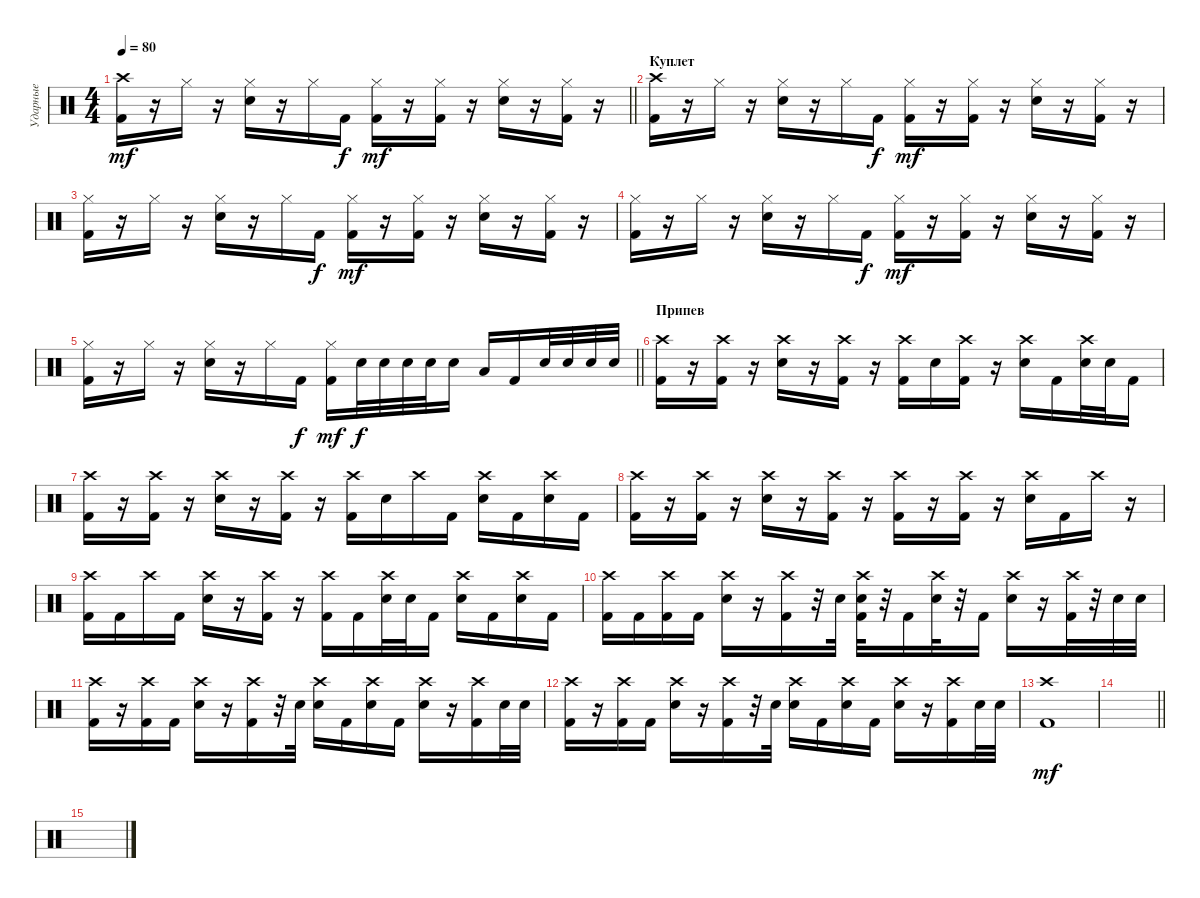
\track ("Ударные" "Ударные") {instrument percussion}
\staff {score}
\articulation defaults
\ts (4 4)
\tempo 80
\clef neutral
\barLineRight lightlight
\ks c
("Crash high (hit)" "Kick (hit) 2").16{dy mf} r.16 "Hi-Hat (closed)".16 r.16 ("Hi-Hat (closed)" "Electric Snare (hit)").16 r.16 "Hi-Hat (closed)".16 "Kick (hit) 2".16{dy f} ("Hi-Hat (closed)" "Kick (hit) 2").16{dy mf} r.16 ("Hi-Hat (closed)" "Kick (hit) 2").16 r.16 ("Hi-Hat (closed)" "Electric Snare (hit)").16 r.16 ("Hi-Hat (closed)" "Kick (hit) 2").16 r.16 |
\section ("" "Куплет")
("Crash high (hit)" "Kick (hit) 2").16 r.16 "Hi-Hat (closed)".16 r.16 ("Hi-Hat (closed)" "Electric Snare (hit)").16 r.16 "Hi-Hat (closed)".16 "Kick (hit) 2".16{dy f} ("Hi-Hat (closed)" "Kick (hit) 2").16{dy mf} r.16 ("Hi-Hat (closed)" "Kick (hit) 2").16 r.16 ("Hi-Hat (closed)" "Electric Snare (hit)").16 r.16 ("Hi-Hat (closed)" "Kick (hit) 2").16 r.16 |
("Hi-Hat (closed)" "Kick (hit) 2").16 r.16 "Hi-Hat (closed)".16 r.16 ("Hi-Hat (closed)" "Electric Snare (hit)").16 r.16 "Hi-Hat (closed)".16 "Kick (hit) 2".16{dy f} ("Hi-Hat (closed)" "Kick (hit) 2").16{dy mf} r.16 ("Hi-Hat (closed)" "Kick (hit) 2").16 r.16 ("Hi-Hat (closed)" "Electric Snare (hit)").16 r.16 ("Hi-Hat (closed)" "Kick (hit) 2").16 r.16 |
("Hi-Hat (closed)" "Kick (hit) 2").16 r.16 "Hi-Hat (closed)".16 r.16 ("Hi-Hat (closed)" "Electric Snare (hit)").16 r.16 "Hi-Hat (closed)".16 "Kick (hit) 2".16{dy f} ("Hi-Hat (closed)" "Kick (hit) 2").16{dy mf} r.16 ("Hi-Hat (closed)" "Kick (hit) 2").16 r.16 ("Hi-Hat (closed)" "Electric Snare (hit)").16 r.16 ("Hi-Hat (closed)" "Kick (hit) 2").16 r.16 |
\barLineRight lightlight
("Hi-Hat (closed)" "Kick (hit) 2").16 r.16 "Hi-Hat (closed)".16 r.16 ("Hi-Hat (closed)" "Electric Snare (hit)").16 r.16 "Hi-Hat (closed)".16 "Kick (hit) 2".16{dy f} ("Hi-Hat (closed)" "Kick (hit) 2").16{dy mf} "Electric Snare (hit)".32{dy f} "Electric Snare (hit)".32 "Electric Snare (hit)".32 "Electric Snare (hit)".32 "Electric Snare (hit)".16 "Low Tom (hit)".16 "Kick (hit) 2".16 "Electric Snare (hit)".32 "Electric Snare (hit)".32 "Electric Snare (hit)".32 "Electric Snare (hit)".32 |
\section ("" "Припев")
("Crash high (hit)" "Kick (hit) 2").16 r.16 ("Crash high (hit)" "Kick (hit) 2").16 r.16 ("Crash high (hit)" "Electric Snare (hit)").16 r.16 ("Crash high (hit)" "Kick (hit) 2").16 r.16 ("Crash high (hit)" "Kick (hit) 2").16 "Electric Snare (hit)".16 ("Crash high (hit)" "Kick (hit) 2").16 r.16 ("Crash high (hit)" "Electric Snare (hit)").16 "Kick (hit) 2".16 ("Crash high (hit)" "Electric Snare (hit)").32 "Electric Snare (hit)".32 "Kick (hit) 2".16 |
("Crash high (hit)" "Kick (hit) 2").16 r.16 ("Crash high (hit)" "Kick (hit) 2").16 r.16 ("Crash high (hit)" "Electric Snare (hit)").16 r.16 ("Crash high (hit)" "Kick (hit) 2").16 r.16 ("Crash high (hit)" "Kick (hit) 2").16 "Electric Snare (hit)".16 "Crash high (hit)".16 "Kick (hit) 2".16 ("Crash high (hit)" "Electric Snare (hit)").16 "Kick (hit) 2".16 ("Crash high (hit)" "Electric Snare (hit)").16 "Kick (hit) 2".16 |
("Crash high (hit)" "Kick (hit) 2").16 r.16 ("Crash high (hit)" "Kick (hit) 2").16 r.16 ("Crash high (hit)" "Electric Snare (hit)").16 r.16 ("Crash high (hit)" "Kick (hit) 2").16 r.16 ("Crash high (hit)" "Kick (hit) 2").16 r.16 ("Crash high (hit)" "Kick (hit) 2").16 r.16 ("Crash high (hit)" "Electric Snare (hit)").16 "Kick (hit) 2".16 "Crash high (hit)".16 r.16 |
("Crash high (hit)" "Kick (hit) 2").16 "Kick (hit) 2".16 "Crash high (hit)".16 "Kick (hit) 2".16 ("Crash high (hit)" "Electric Snare (hit)").16 r.16 ("Crash high (hit)" "Kick (hit) 2").16 r.16 ("Crash high (hit)" "Kick (hit) 2").16 "Kick (hit) 2".16 ("Crash high (hit)" "Electric Snare (hit)").32 "Electric Snare (hit)".32 "Kick (hit) 2".16 ("Crash high (hit)" "Electric Snare (hit)").16 "Kick (hit) 2".16 ("Crash high (hit)" "Electric Snare (hit)").16 "Kick (hit) 2".16 |
("Crash high (hit)" "Kick (hit) 2").16 "Kick (hit) 2".16 ("Crash high (hit)" "Kick (hit) 2").16 "Kick (hit) 2".16 ("Crash high (hit)" "Electric Snare (hit)").16 r.16 ("Crash high (hit)" "Kick (hit) 2").16 r.32 "Electric Snare (hit)".32 ("Crash high (hit)" "Electric Snare (hit)" "Kick (hit) 2").32 r.32 "Kick (hit) 2".16 ("Crash high (hit)" "Electric Snare (hit)").32 r.32 "Kick (hit) 2".16 ("Crash high (hit)" "Electric Snare (hit)").16 r.16 ("Crash high (hit)" "Kick (hit) 2").32 r.32 "Electric Snare (hit)".32 "Electric Snare (hit)".32 |
("Crash high (hit)" "Kick (hit) 2").16 r.16 ("Crash high (hit)" "Kick (hit) 2").16 "Kick (hit) 2".16 ("Crash high (hit)" "Electric Snare (hit)").16 r.16 ("Crash high (hit)" "Kick (hit) 2").16 r.32 "Electric Snare (hit)".32 ("Crash high (hit)" "Electric Snare (hit)").16 "Kick (hit) 2".16 ("Crash high (hit)" "Electric Snare (hit)").16 "Kick (hit) 2".16 ("Crash high (hit)" "Electric Snare (hit)").16 r.16 ("Crash high (hit)" "Kick (hit) 2").16 "Electric Snare (hit)".32 "Electric Snare (hit)".32 |
("Crash high (hit)" "Kick (hit) 2").16 r.16 ("Crash high (hit)" "Kick (hit) 2").16 "Kick (hit) 2".16 ("Crash high (hit)" "Electric Snare (hit)").16 r.16 ("Crash high (hit)" "Kick (hit) 2").16 r.32 "Electric Snare (hit)".32 ("Crash high (hit)" "Electric Snare (hit)").16 "Kick (hit) 2".16 ("Crash high (hit)" "Electric Snare (hit)").16 "Kick (hit) 2".16 ("Crash high (hit)" "Electric Snare (hit)").16 r.16 ("Crash high (hit)" "Kick (hit) 2").16 "Electric Snare (hit)".32 "Electric Snare (hit)".32 |
("Crash high (hit)" "Kick (hit) 2").1{dy mf} |
\barLineRight lightlight
|
\section ("" "")
